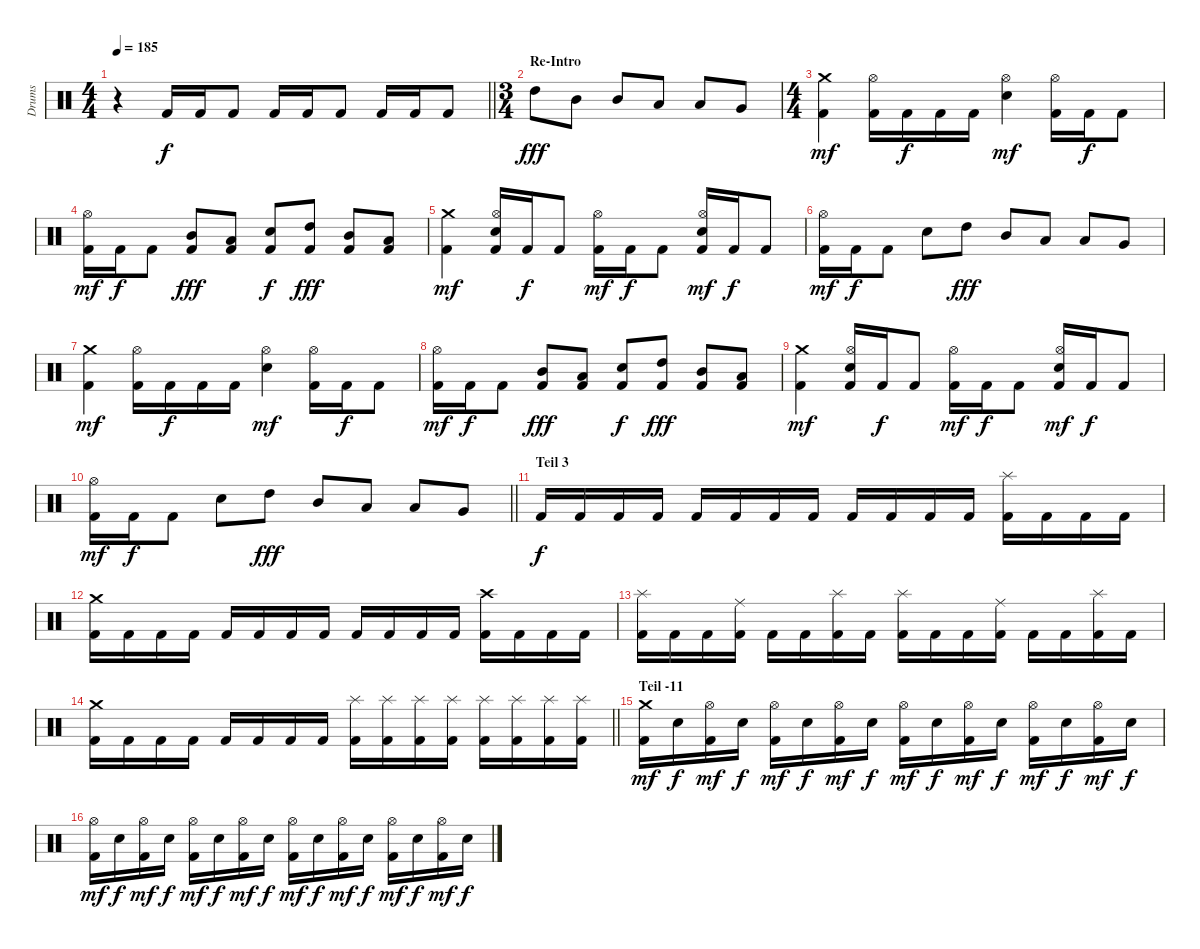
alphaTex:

\track ("Drums" "Drums") {instrument percussion}
\staff {score}
\articulation defaults
\ts (4 4)
\tempo 185
\clef neutral
\barLineRight lightlight
\ks c
r.4{dy f} "Kick (hit) 2".16 "Kick (hit) 2".16 "Kick (hit) 2".8 "Kick (hit) 2".16 "Kick (hit) 2".16 "Kick (hit) 2".8 "Kick (hit) 2".16 "Kick (hit) 2".16 "Kick (hit) 2".8 |
\ts (3 4)
\section ("" "Re-Intro")
"High Tom (hit)".8{dy fff} "Mid Tom (hit)".8 "Mid Tom (hit)".8 "Low Tom (hit)".8 "Low Tom (hit)".8 "Very Low Tom (hit)".8 |
\ts (4 4)
("Crash medium (hit)" "Kick (hit) 2").4{dy mf} ("Hi-Hat (open)" "Kick (hit) 2").16 "Kick (hit) 2".16{dy f} "Kick (hit) 2".16 "Kick (hit) 2".16 ("Hi-Hat (open)" "Electric Snare (hit)").4{dy mf} ("Hi-Hat (open)" "Kick (hit) 2").16 "Kick (hit) 2".16{dy f} "Kick (hit) 2".8 |
("Hi-Hat (open)" "Kick (hit) 2").16{dy mf} "Kick (hit) 2".16{dy f} "Kick (hit) 2".8 ("Mid Tom (hit)" "Kick (hit) 2").8{dy fff} ("Low Tom (hit)" "Kick (hit) 2").8 ("Electric Snare (hit)" "Kick (hit) 2").8{dy f} ("High Tom (hit)" "Kick (hit) 2").8{dy fff} ("Mid Tom (hit)" "Kick (hit) 2").8 ("Low Tom (hit)" "Kick (hit) 2").8 |
("Crash medium (hit)" "Kick (hit) 2").4{dy mf} ("Hi-Hat (open)" "Electric Snare (hit)" "Kick (hit) 2").16 "Kick (hit) 2".16{dy f} "Kick (hit) 2".8 ("Hi-Hat (open)" "Kick (hit) 2").16{dy mf} "Kick (hit) 2".16{dy f} "Kick (hit) 2".8 ("Hi-Hat (open)" "Electric Snare (hit)" "Kick (hit) 2").16{dy mf} "Kick (hit) 2".16{dy f} "Kick (hit) 2".8 |
("Hi-Hat (open)" "Kick (hit) 2").16{dy mf} "Kick (hit) 2".16{dy f} "Kick (hit) 2".8 "Electric Snare (hit)".8 "High Tom (hit)".8{dy fff} "Mid Tom (hit)".8 "Low Tom (hit)".8 "Low Tom (hit)".8 "Very Low Tom (hit)".8 |
("Crash medium (hit)" "Kick (hit) 2").4{dy mf} ("Hi-Hat (open)" "Kick (hit) 2").16 "Kick (hit) 2".16{dy f} "Kick (hit) 2".16 "Kick (hit) 2".16 ("Hi-Hat (open)" "Electric Snare (hit)").4{dy mf} ("Hi-Hat (open)" "Kick (hit) 2").16 "Kick (hit) 2".16{dy f} "Kick (hit) 2".8 |
("Hi-Hat (open)" "Kick (hit) 2").16{dy mf} "Kick (hit) 2".16{dy f} "Kick (hit) 2".8 ("Mid Tom (hit)" "Kick (hit) 2").8{dy fff} ("Low Tom (hit)" "Kick (hit) 2").8 ("Electric Snare (hit)" "Kick (hit) 2").8{dy f} ("High Tom (hit)" "Kick (hit) 2").8{dy fff} ("Mid Tom (hit)" "Kick (hit) 2").8 ("Low Tom (hit)" "Kick (hit) 2").8 |
("Crash medium (hit)" "Kick (hit) 2").4{dy mf} ("Hi-Hat (open)" "Electric Snare (hit)" "Kick (hit) 2").16 "Kick (hit) 2".16{dy f} "Kick (hit) 2".8 ("Hi-Hat (open)" "Kick (hit) 2").16{dy mf} "Kick (hit) 2".16{dy f} "Kick (hit) 2".8 ("Hi-Hat (open)" "Electric Snare (hit)" "Kick (hit) 2").16{dy mf} "Kick (hit) 2".16{dy f} "Kick (hit) 2".8 |
\barLineRight lightlight
("Hi-Hat (open)" "Kick (hit) 2").16{dy mf} "Kick (hit) 2".16{dy f} "Kick (hit) 2".8 "Electric Snare (hit)".8 "High Tom (hit)".8{dy fff} "Mid Tom (hit)".8 "Low Tom (hit)".8 "Low Tom (hit)".8 "Very Low Tom (hit)".8 |
\section ("" "Teil 3")
"Kick (hit) 2".16{dy f} "Kick (hit) 2".16 "Kick (hit) 2".16 "Kick (hit) 2".16 "Kick (hit) 2".16 "Kick (hit) 2".16 "Kick (hit) 2".16 "Kick (hit) 2".16 "Kick (hit) 2".16 "Kick (hit) 2".16 "Kick (hit) 2".16 "Kick (hit) 2".16 ("Splash (hit)" "Kick (hit) 2").16 "Kick (hit) 2".16 "Kick (hit) 2".16 "Kick (hit) 2".16 |
("Crash medium (hit)" "Kick (hit) 2").16 "Kick (hit) 2".16 "Kick (hit) 2".16 "Kick (hit) 2".16 "Kick (hit) 2".16 "Kick (hit) 2".16 "Kick (hit) 2".16 "Kick (hit) 2".16 "Kick (hit) 2".16 "Kick (hit) 2".16 "Kick (hit) 2".16 "Kick (hit) 2".16 ("Crash high (hit)" "Kick (hit) 2").16 "Kick (hit) 2".16 "Kick (hit) 2".16 "Kick (hit) 2".16 |
("Splash (hit)" "Kick (hit) 2").16 "Kick (hit) 2".16 "Kick (hit) 2".16 ("Ride (middle)" "Kick (hit) 2").16 "Kick (hit) 2".16 "Kick (hit) 2".16 ("Splash (hit)" "Kick (hit) 2").16 "Kick (hit) 2".16 ("Splash (hit)" "Kick (hit) 2").16 "Kick (hit) 2".16 "Kick (hit) 2".16 ("Ride (middle)" "Kick (hit) 2").16 "Kick (hit) 2".16 "Kick (hit) 2".16 ("Splash (hit)" "Kick (hit) 2").16 "Kick (hit) 2".16 |
\barLineRight lightlight
("Crash medium (hit)" "Kick (hit) 2").16 "Kick (hit) 2".16 "Kick (hit) 2".16 "Kick (hit) 2".16 "Kick (hit) 2".16 "Kick (hit) 2".16 "Kick (hit) 2".16 "Kick (hit) 2".16 ("Splash (hit)" "Kick (hit) 2").16 ("Splash (hit)" "Kick (hit) 2").16 ("Splash (hit)" "Kick (hit) 2").16 ("Splash (hit)" "Kick (hit) 2").16 ("Splash (hit)" "Kick (hit) 2").16 ("Splash (hit)" "Kick (hit) 2").16 ("Splash (hit)" "Kick (hit) 2").16 ("Splash (hit)" "Kick (hit) 2").16 |
\section ("" "Teil -11")
("Crash medium (hit)" "Kick (hit) 2").16{dy mf} "Electric Snare (hit)".16{dy f} ("Hi-Hat (open)" "Kick (hit) 2").16{dy mf} "Electric Snare (hit)".16{dy f} ("Hi-Hat (open)" "Kick (hit) 2").16{dy mf} "Electric Snare (hit)".16{dy f} ("Hi-Hat (open)" "Kick (hit) 2").16{dy mf} "Electric Snare (hit)".16{dy f} ("Hi-Hat (open)" "Kick (hit) 2").16{dy mf} "Electric Snare (hit)".16{dy f} ("Hi-Hat (open)" "Kick (hit) 2").16{dy mf} "Electric Snare (hit)".16{dy f} ("Hi-Hat (open)" "Kick (hit) 2").16{dy mf} "Electric Snare (hit)".16{dy f} ("Hi-Hat (open)" "Kick (hit) 2").16{dy mf} "Electric Snare (hit)".16{dy f} |
("Hi-Hat (open)" "Kick (hit) 2").16{dy mf} "Electric Snare (hit)".16{dy f} ("Hi-Hat (open)" "Kick (hit) 2").16{dy mf} "Electric Snare (hit)".16{dy f} ("Hi-Hat (open)" "Kick (hit) 2").16{dy mf} "Electric Snare (hit)".16{dy f} ("Hi-Hat (open)" "Kick (hit) 2").16{dy mf} "Electric Snare (hit)".16{dy f} ("Hi-Hat (open)" "Kick (hit) 2").16{dy mf} "Electric Snare (hit)".16{dy f} ("Hi-Hat (open)" "Kick (hit) 2").16{dy mf} "Electric Snare (hit)".16{dy f} ("Hi-Hat (open)" "Kick (hit) 2").16{dy mf} "Electric Snare (hit)".16{dy f} ("Hi-Hat (open)" "Kick (hit) 2").16{dy mf} "Electric Snare (hit)".16{dy f}
